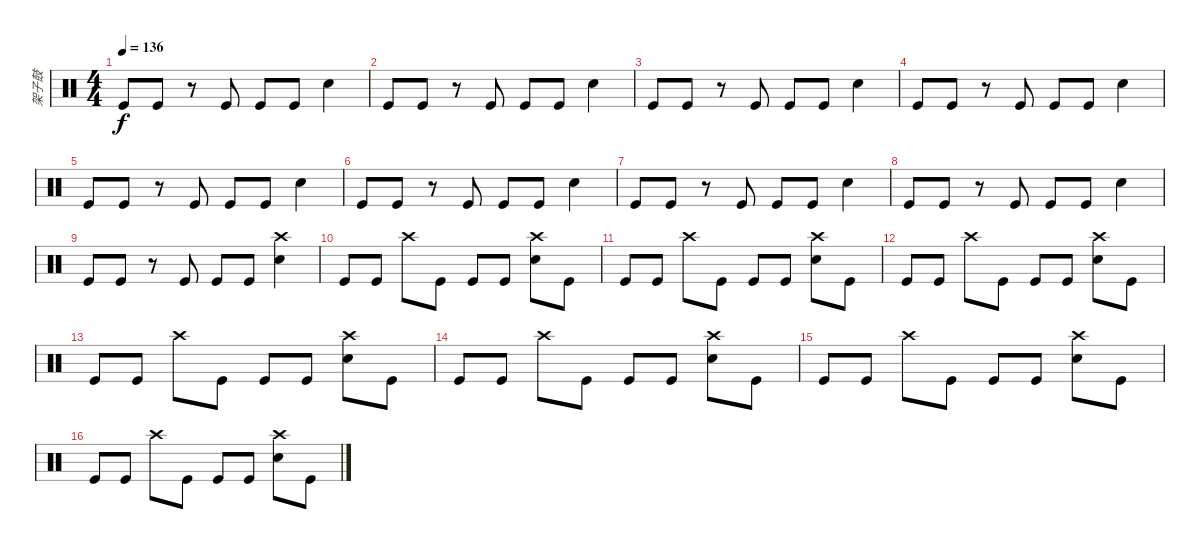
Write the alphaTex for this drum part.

\track ("架子鼓" "架子鼓") {instrument percussion}
\staff {score}
\articulation defaults
\ts (4 4)
\tempo 136
\clef neutral
\ks c "Kick (hit)".8{dy f} "Kick (hit)".8
r.8 "Kick (hit)".8 "Kick (hit)".8 "Kick (hit)".8 "Snare (hit) 2".4 |
"Kick (hit)".8 "Kick (hit)".8 r.8 "Kick (hit)".8 "Kick (hit)".8 "Kick (hit)".8 "Snare (hit) 2".4 |
"Kick (hit)".8 "Kick (hit)".8 r.8 "Kick (hit)".8 "Kick (hit)".8 "Kick (hit)".8 "Snare (hit) 2".4 |
"Kick (hit)".8 "Kick (hit)".8 r.8 "Kick (hit)".8 "Kick (hit)".8 "Kick (hit)".8 "Snare (hit) 2".4 |
"Kick (hit)".8 "Kick (hit)".8 r.8 "Kick (hit)".8 "Kick (hit)".8 "Kick (hit)".8 "Snare (hit) 2".4 |
"Kick (hit)".8 "Kick (hit)".8 r.8 "Kick (hit)".8 "Kick (hit)".8 "Kick (hit)".8 "Snare (hit) 2".4 |
"Kick (hit)".8 "Kick (hit)".8 r.8 "Kick (hit)".8 "Kick (hit)".8 "Kick (hit)".8 "Snare (hit) 2".4 |
"Kick (hit)".8 "Kick (hit)".8 r.8 "Kick (hit)".8 "Kick (hit)".8 "Kick (hit)".8 "Snare (hit) 2".4 |
"Kick (hit)".8 "Kick (hit)".8 r.8 "Kick (hit)".8 "Kick (hit)".8 "Kick (hit)".8 ("Crash high (hit)" "Snare (hit) 2").4 |
"Kick (hit)".8 "Kick (hit)".8 "Crash high (hit)".8 "Kick (hit)".8 "Kick (hit)".8 "Kick (hit)".8 ("Crash high (hit)" "Snare (hit) 2").8 "Kick (hit)".8 |
"Kick (hit)".8 "Kick (hit)".8 "Crash high (hit)".8 "Kick (hit)".8 "Kick (hit)".8 "Kick (hit)".8 ("Crash high (hit)" "Snare (hit) 2").8 "Kick (hit)".8 |
"Kick (hit)".8 "Kick (hit)".8 "Crash high (hit)".8 "Kick (hit)".8 "Kick (hit)".8 "Kick (hit)".8 ("Crash high (hit)" "Snare (hit) 2").8 "Kick (hit)".8 |
"Kick (hit)".8 "Kick (hit)".8 "Crash high (hit)".8 "Kick (hit)".8 "Kick (hit)".8 "Kick (hit)".8 ("Crash high (hit)" "Snare (hit) 2").8 "Kick (hit)".8 |
"Kick (hit)".8 "Kick (hit)".8 "Crash high (hit)".8 "Kick (hit)".8 "Kick (hit)".8 "Kick (hit)".8 ("Crash high (hit)" "Snare (hit) 2").8 "Kick (hit)".8 |
"Kick (hit)".8 "Kick (hit)".8 "Crash high (hit)".8 "Kick (hit)".8 "Kick (hit)".8 "Kick (hit)".8 ("Crash high (hit)" "Snare (hit) 2").8 "Kick (hit)".8 |
"Kick (hit)".8 "Kick (hit)".8 "Crash high (hit)".8 "Kick (hit)".8 "Kick (hit)".8 "Kick (hit)".8 ("Crash high (hit)" "Snare (hit) 2").8 "Kick (hit)".8
